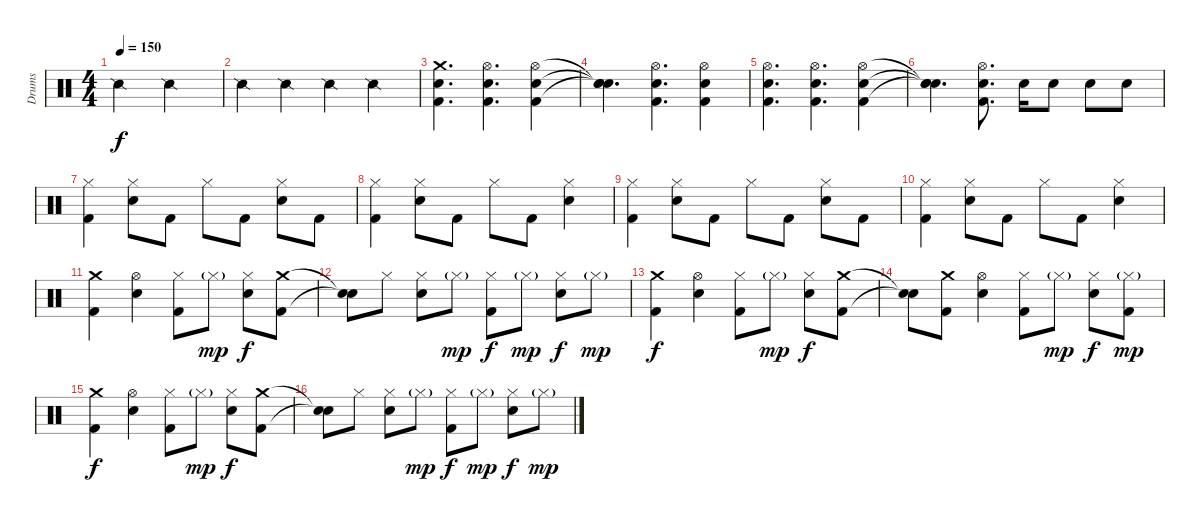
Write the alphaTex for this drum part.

\track ("Drums" "Drums") {instrument percussion}
\staff {score}
\articulation defaults
\ts (4 4)
\tempo 150
\clef neutral
\ks c "Snare (side stick) 2".2{dy f} "Snare (side stick) 2".2
|
"Snare (side stick) 2".4 "Snare (side stick) 2".4 "Snare (side stick) 2".4 "Snare (side stick) 2".4 |
("Crash medium (hit)" "Electric Snare (hit)" "Kick (hit) 2").4{d} ("Hi-Hat (open)" "Electric Snare (hit)" "Kick (hit) 2").4{d} ("Hi-Hat (open)" "Electric Snare (hit)" "Kick (hit) 2").4 |
("Snare (hit)"{t} "Snare (hit)"{t} "Snare (hit)"{t}).4{d} ("Hi-Hat (open)" "Electric Snare (hit)" "Kick (hit) 2").4{d} ("Hi-Hat (open)" "Electric Snare (hit)" "Kick (hit) 2").4 |
("Hi-Hat (open)" "Electric Snare (hit)" "Kick (hit) 2").4{d} ("Hi-Hat (open)" "Electric Snare (hit)" "Kick (hit) 2").4{d} ("Hi-Hat (open)" "Electric Snare (hit)" "Kick (hit) 2").4 |
("Snare (hit)"{t} "Snare (hit)"{t} "Snare (hit)"{t}).4{d} ("Hi-Hat (open)" "Electric Snare (hit)" "Kick (hit) 2").8{d} "Electric Snare (hit)".16 "Electric Snare (hit)".8 "Electric Snare (hit)".8 "Electric Snare (hit)".8 |
("Hi-Hat (closed)" "Kick (hit) 2").4 ("Hi-Hat (closed)" "Electric Snare (hit)").8 "Kick (hit) 2".8 "Hi-Hat (closed)".8 "Kick (hit) 2".8 ("Hi-Hat (closed)" "Electric Snare (hit)").8 "Kick (hit) 2".8 |
("Hi-Hat (closed)" "Kick (hit) 2").4 ("Hi-Hat (closed)" "Electric Snare (hit)").8 "Kick (hit) 2".8 "Hi-Hat (closed)".8 "Kick (hit) 2".8 ("Hi-Hat (closed)" "Electric Snare (hit)").4 |
("Hi-Hat (closed)" "Kick (hit) 2").4 ("Hi-Hat (closed)" "Electric Snare (hit)").8 "Kick (hit) 2".8 "Hi-Hat (closed)".8 "Kick (hit) 2".8 ("Hi-Hat (closed)" "Electric Snare (hit)").8 "Kick (hit) 2".8 |
("Hi-Hat (closed)" "Kick (hit) 2").4 ("Hi-Hat (closed)" "Electric Snare (hit)").8 "Kick (hit) 2".8 "Hi-Hat (closed)".8 "Kick (hit) 2".8 ("Hi-Hat (closed)" "Electric Snare (hit)").4 |
("Crash medium (hit)" "Kick (hit) 2").4 ("Hi-Hat (open)" "Electric Snare (hit)").4 ("Hi-Hat (closed)" "Kick (hit) 2").8 "Hi-Hat (closed)"{g}.8{dy mp} ("Hi-Hat (closed)" "Electric Snare (hit)").8{dy f} ("Crash medium (hit)" "Kick (hit) 2").8 |
("Snare (hit)"{t} "Snare (hit)"{t}).8 "Hi-Hat (closed)".8 ("Hi-Hat (closed)" "Electric Snare (hit)").8 "Hi-Hat (closed)"{g}.8{dy mp} ("Hi-Hat (closed)" "Kick (hit) 2").8{dy f} "Hi-Hat (closed)"{g}.8{dy mp} ("Hi-Hat (closed)" "Electric Snare (hit)").8{dy f} "Hi-Hat (closed)"{g}.8{dy mp} |
("Crash medium (hit)" "Kick (hit) 2").4{dy f} ("Hi-Hat (open)" "Electric Snare (hit)").4 ("Hi-Hat (closed)" "Kick (hit) 2").8 "Hi-Hat (closed)"{g}.8{dy mp} ("Hi-Hat (closed)" "Electric Snare (hit)").8{dy f} ("Crash medium (hit)" "Kick (hit) 2").8 |
("Snare (hit)"{t} "Snare (hit)"{t}).8 ("Crash medium (hit)" "Kick (hit) 2").8 ("Hi-Hat (open)" "Electric Snare (hit)").4 ("Hi-Hat (closed)" "Kick (hit) 2").8 "Hi-Hat (closed)"{g}.8{dy mp} ("Hi-Hat (closed)" "Electric Snare (hit)").8{dy f} ("Hi-Hat (closed)"{g} "Kick (hit) 2").8{dy mp} |
("Crash medium (hit)" "Kick (hit) 2").4{dy f} ("Hi-Hat (open)" "Electric Snare (hit)").4 ("Hi-Hat (closed)" "Kick (hit) 2").8 "Hi-Hat (closed)"{g}.8{dy mp} ("Hi-Hat (closed)" "Electric Snare (hit)").8{dy f} ("Crash medium (hit)" "Kick (hit) 2").8 |
("Snare (hit)"{t} "Snare (hit)"{t}).8 "Hi-Hat (closed)".8 ("Hi-Hat (closed)" "Electric Snare (hit)").8 "Hi-Hat (closed)"{g}.8{dy mp} ("Hi-Hat (closed)" "Kick (hit) 2").8{dy f} "Hi-Hat (closed)"{g}.8{dy mp} ("Hi-Hat (closed)" "Electric Snare (hit)").8{dy f} "Hi-Hat (closed)"{g}.8{dy mp}
